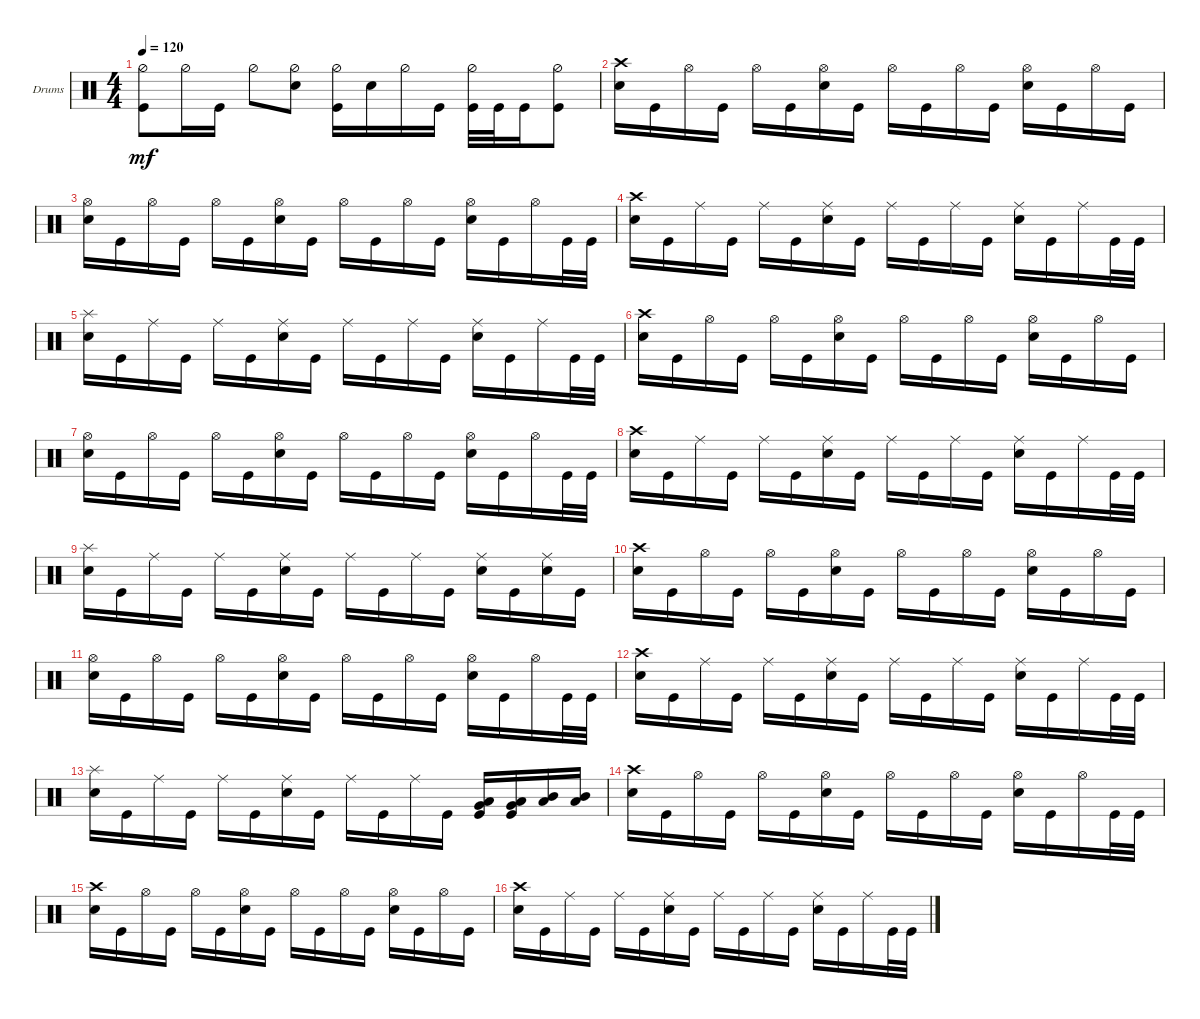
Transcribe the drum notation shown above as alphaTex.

\defaultSystemsLayout 4
\bracketExtendMode groupsimilarinstruments
\firstSystemTrackNameOrientation horizontal
\otherSystemsTrackNameOrientation horizontal
\track ("Drumkit" "Drums") {instrument percussion}
\staff {score}
\articulation defaults
\ts (4 4)
\tempo 120
\clef neutral
\ks c
("Kick (hit)" "Hi-Hat (half)").8{dy mf} "Hi-Hat (half)".16 "Kick (hit)".16 "Hi-Hat (half)".8 ("Snare (hit) 2" "Hi-Hat (half)").8 ("Kick (hit)" "Hi-Hat (half)").16 "Snare (hit) 2".16 "Hi-Hat (half)".16 "Kick (hit)".16 ("Hi-Hat (half)" "Kick (hit)").32 "Kick (hit)".32 "Kick (hit)".16 ("Hi-Hat (half)" "Kick (hit)").8 |
("Snare (hit) 2" "Crash high (hit)").16 "Kick (hit)".16 "Hi-Hat (open)".16 "Kick (hit)".16 "Hi-Hat (open)".16 "Kick (hit)".16 ("Snare (hit) 2" "Hi-Hat (open)").16 "Kick (hit)".16 "Hi-Hat (open)".16 "Kick (hit)".16 "Hi-Hat (open)".16 "Kick (hit)".16 ("Snare (hit) 2" "Hi-Hat (open)").16 "Kick (hit)".16 "Hi-Hat (open)".16 "Kick (hit)".16 |
("Snare (hit) 2" "Hi-Hat (open)").16 "Kick (hit)".16 "Hi-Hat (open)".16 "Kick (hit)".16 "Hi-Hat (open)".16 "Kick (hit)".16 ("Snare (hit) 2" "Hi-Hat (open)").16 "Kick (hit)".16 "Hi-Hat (open)".16 "Kick (hit)".16 "Hi-Hat (open)".16 "Kick (hit)".16 ("Snare (hit) 2" "Hi-Hat (open)").16 "Kick (hit)".16 "Hi-Hat (open)".16 "Kick (hit)".32 "Kick (hit)".32 |
("Snare (hit) 2" "Crash high (hit)").16 "Kick (hit)".16 "Ride (middle)".16 "Kick (hit)".16 "Ride (middle)".16 "Kick (hit)".16 ("Snare (hit) 2" "Ride (middle)").16 "Kick (hit)".16 "Ride (middle)".16 "Kick (hit)".16 "Ride (middle)".16 "Kick (hit)".16 ("Snare (hit) 2" "Ride (middle)").16 "Kick (hit)".16 "Ride (middle)".16 "Kick (hit)".32 "Kick (hit)".32 |
("Snare (hit) 2" "Splash (hit)").16 "Kick (hit)".16 "Ride (middle)".16 "Kick (hit)".16 "Ride (middle)".16 "Kick (hit)".16 ("Snare (hit) 2" "Ride (middle)").16 "Kick (hit)".16 "Ride (middle)".16 "Kick (hit)".16 "Ride (middle)".16 "Kick (hit)".16 ("Snare (hit) 2" "Ride (middle)").16 "Kick (hit)".16 "Ride (middle)".16 "Kick (hit)".32 "Kick (hit)".32 |
("Snare (hit) 2" "Crash high (hit)").16 "Kick (hit)".16 "Hi-Hat (open)".16 "Kick (hit)".16 "Hi-Hat (open)".16 "Kick (hit)".16 ("Snare (hit) 2" "Hi-Hat (open)").16 "Kick (hit)".16 "Hi-Hat (open)".16 "Kick (hit)".16 "Hi-Hat (open)".16 "Kick (hit)".16 ("Snare (hit) 2" "Hi-Hat (open)").16 "Kick (hit)".16 "Hi-Hat (open)".16 "Kick (hit)".16 |
("Snare (hit) 2" "Hi-Hat (open)").16 "Kick (hit)".16 "Hi-Hat (open)".16 "Kick (hit)".16 "Hi-Hat (open)".16 "Kick (hit)".16 ("Snare (hit) 2" "Hi-Hat (open)").16 "Kick (hit)".16 "Hi-Hat (open)".16 "Kick (hit)".16 "Hi-Hat (open)".16 "Kick (hit)".16 ("Snare (hit) 2" "Hi-Hat (open)").16 "Kick (hit)".16 "Hi-Hat (open)".16 "Kick (hit)".32 "Kick (hit)".32 |
("Snare (hit) 2" "Crash high (hit)").16 "Kick (hit)".16 "Ride (middle)".16 "Kick (hit)".16 "Ride (middle)".16 "Kick (hit)".16 ("Snare (hit) 2" "Ride (middle)").16 "Kick (hit)".16 "Ride (middle)".16 "Kick (hit)".16 "Ride (middle)".16 "Kick (hit)".16 ("Snare (hit) 2" "Ride (middle)").16 "Kick (hit)".16 "Ride (middle)".16 "Kick (hit)".32 "Kick (hit)".32 |
("Snare (hit) 2" "Splash (hit)").16 "Kick (hit)".16 "Ride (middle)".16 "Kick (hit)".16 "Ride (middle)".16 "Kick (hit)".16 ("Snare (hit) 2" "Ride (middle)").16 "Kick (hit)".16 "Ride (middle)".16 "Kick (hit)".16 "Ride (middle)".16 "Kick (hit)".16 ("Snare (hit) 2" "Ride (middle)").16 "Kick (hit)".16 ("Ride (middle)" "Snare (hit) 2").16 "Kick (hit)".16 |
("Snare (hit) 2" "Crash high (hit)").16 "Kick (hit)".16 "Hi-Hat (open)".16 "Kick (hit)".16 "Hi-Hat (open)".16 "Kick (hit)".16 ("Snare (hit) 2" "Hi-Hat (open)").16 "Kick (hit)".16 "Hi-Hat (open)".16 "Kick (hit)".16 "Hi-Hat (open)".16 "Kick (hit)".16 ("Snare (hit) 2" "Hi-Hat (open)").16 "Kick (hit)".16 "Hi-Hat (open)".16 "Kick (hit)".16 |
("Snare (hit) 2" "Hi-Hat (open)").16 "Kick (hit)".16 "Hi-Hat (open)".16 "Kick (hit)".16 "Hi-Hat (open)".16 "Kick (hit)".16 ("Snare (hit) 2" "Hi-Hat (open)").16 "Kick (hit)".16 "Hi-Hat (open)".16 "Kick (hit)".16 "Hi-Hat (open)".16 "Kick (hit)".16 ("Snare (hit) 2" "Hi-Hat (open)").16 "Kick (hit)".16 "Hi-Hat (open)".16 "Kick (hit)".32 "Kick (hit)".32 |
("Snare (hit) 2" "Crash high (hit)").16 "Kick (hit)".16 "Ride (middle)".16 "Kick (hit)".16 "Ride (middle)".16 "Kick (hit)".16 ("Snare (hit) 2" "Ride (middle)").16 "Kick (hit)".16 "Ride (middle)".16 "Kick (hit)".16 "Ride (middle)".16 "Kick (hit)".16 ("Snare (hit) 2" "Ride (middle)").16 "Kick (hit)".16 "Ride (middle)".16 "Kick (hit)".32 "Kick (hit)".32 |
("Snare (hit) 2" "Splash (hit)").16 "Kick (hit)".16 "Ride (middle)".16 "Kick (hit)".16 "Ride (middle)".16 "Kick (hit)".16 ("Snare (hit) 2" "Ride (middle)").16 "Kick (hit)".16 "Ride (middle)".16 "Kick (hit)".16 "Ride (middle)".16 "Kick (hit)".16 ("Very Low Tom (hit)" "Low Tom (hit)" "Kick (hit)").16 ("Very Low Tom (hit)" "Low Tom (hit)" "Kick (hit)").16 ("Low Tom (hit)" "Mid Tom (hit)").16 ("Low Tom (hit)" "Mid Tom (hit)").16 |
("Snare (hit) 2" "Crash high (hit)").16 "Kick (hit)".16 "Hi-Hat (open)".16 "Kick (hit)".16 "Hi-Hat (open)".16 "Kick (hit)".16 ("Snare (hit) 2" "Hi-Hat (open)").16 "Kick (hit)".16 "Hi-Hat (open)".16 "Kick (hit)".16 "Hi-Hat (open)".16 "Kick (hit)".16 ("Snare (hit) 2" "Hi-Hat (open)").16 "Kick (hit)".16 "Hi-Hat (open)".16 "Kick (hit)".32 "Kick (hit)".32 |
("Snare (hit) 2" "Crash high (hit)").16 "Kick (hit)".16 "Hi-Hat (open)".16 "Kick (hit)".16 "Hi-Hat (open)".16 "Kick (hit)".16 ("Snare (hit) 2" "Hi-Hat (open)").16 "Kick (hit)".16 "Hi-Hat (open)".16 "Kick (hit)".16 "Hi-Hat (open)".16 "Kick (hit)".16 ("Snare (hit) 2" "Hi-Hat (open)").16 "Kick (hit)".16 "Hi-Hat (open)".16 "Kick (hit)".16 |
("Snare (hit) 2" "Crash high (hit)").16 "Kick (hit)".16 "Ride (middle)".16 "Kick (hit)".16 "Ride (middle)".16 "Kick (hit)".16 ("Snare (hit) 2" "Ride (middle)").16 "Kick (hit)".16 "Ride (middle)".16 "Kick (hit)".16 "Ride (middle)".16 "Kick (hit)".16 ("Snare (hit) 2" "Ride (middle)").16 "Kick (hit)".16 "Ride (middle)".16 "Kick (hit)".32 "Kick (hit)".32
